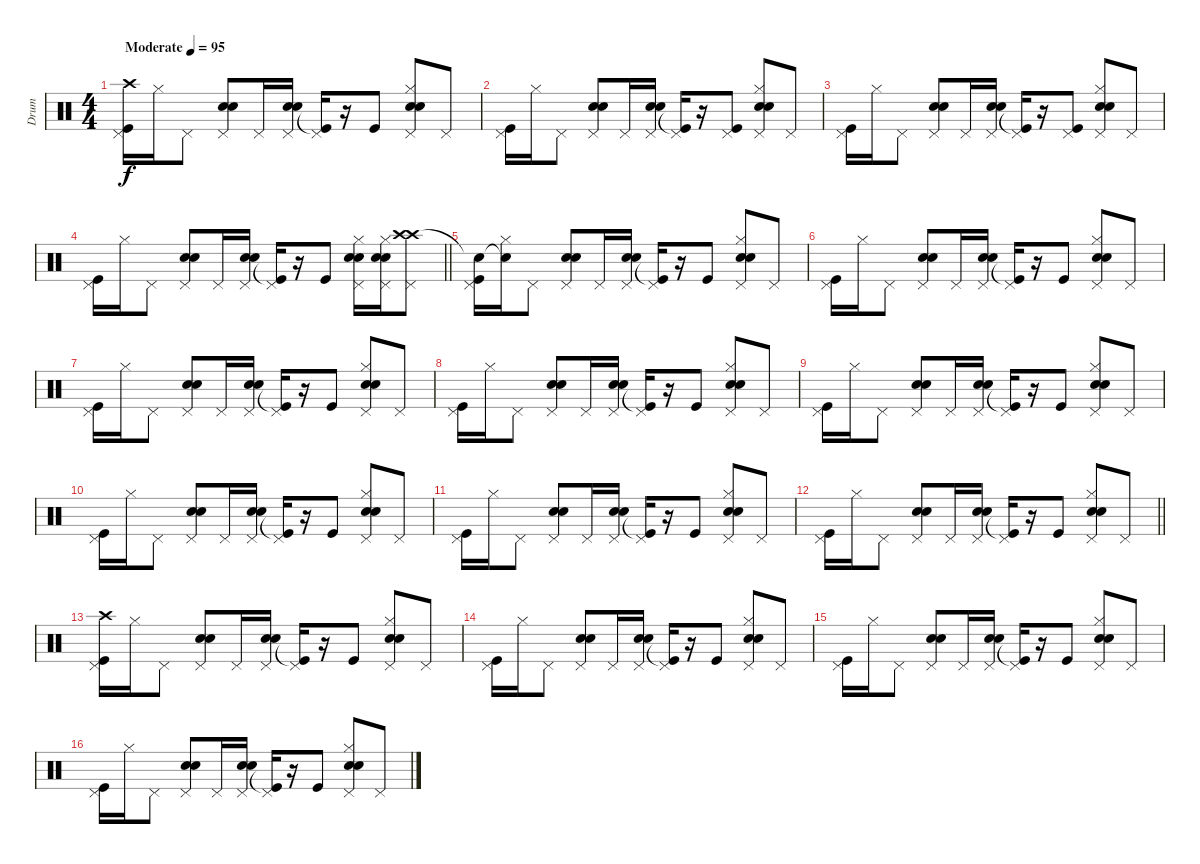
\track ("Drum" "Drum") {instrument percussion}
\staff {score}
\articulation defaults
\ts (4 4)
\tempo (95 "Moderate")
\clef neutral
\ks c
("Pedal Hi-Hat (hit)" "Crash high (hit)" "Kick (hit)").16{dy f} "Hi-Hat (closed)".16 "Pedal Hi-Hat (hit)".8 ("Pedal Hi-Hat (hit)" "Snare (hit) 2" "Snare (hit) 2").8 "Pedal Hi-Hat (hit)".16 ("Pedal Hi-Hat (hit)" "Snare (hit) 2" "Snare (hit) 2").16 ("Pedal Hi-Hat (hit)" "Kick (hit)"{t}).16 r.16 "Kick (hit)".8 ("Pedal Hi-Hat (hit)" "Hi-Hat (closed)" "Snare (hit) 2" "Snare (hit) 2").8 "Pedal Hi-Hat (hit)".8 |
("Pedal Hi-Hat (hit)" "Kick (hit)").16 "Hi-Hat (closed)".16 "Pedal Hi-Hat (hit)".8 ("Pedal Hi-Hat (hit)" "Snare (hit) 2" "Snare (hit) 2").8 "Pedal Hi-Hat (hit)".16 ("Pedal Hi-Hat (hit)" "Snare (hit) 2" "Snare (hit) 2").16 ("Pedal Hi-Hat (hit)" "Kick (hit)"{t}).16 r.16 ("Pedal Hi-Hat (hit)" "Kick (hit)").8 ("Pedal Hi-Hat (hit)" "Hi-Hat (closed)" "Snare (hit) 2" "Snare (hit) 2").8 "Pedal Hi-Hat (hit)".8 |
("Pedal Hi-Hat (hit)" "Kick (hit)").16 "Hi-Hat (closed)".16 "Pedal Hi-Hat (hit)".8 ("Pedal Hi-Hat (hit)" "Snare (hit) 2" "Snare (hit) 2").8 "Pedal Hi-Hat (hit)".16 ("Pedal Hi-Hat (hit)" "Snare (hit) 2" "Snare (hit) 2").16 ("Pedal Hi-Hat (hit)" "Kick (hit)"{t}).16 r.16 ("Pedal Hi-Hat (hit)" "Kick (hit)").8 ("Pedal Hi-Hat (hit)" "Hi-Hat (closed)" "Snare (hit) 2" "Snare (hit) 2").8 "Pedal Hi-Hat (hit)".8 |
\barLineRight lightlight
("Pedal Hi-Hat (hit)" "Kick (hit)").16 "Hi-Hat (closed)".16 "Pedal Hi-Hat (hit)".8 ("Pedal Hi-Hat (hit)" "Snare (hit) 2" "Snare (hit) 2").8 "Pedal Hi-Hat (hit)".16 ("Pedal Hi-Hat (hit)" "Snare (hit) 2" "Snare (hit) 2").16 ("Pedal Hi-Hat (hit)" "Kick (hit)"{t}).16 r.16 "Kick (hit)".8 ("Pedal Hi-Hat (hit)" "Hi-Hat (closed)" "Electric Snare (hit)" "Electric Snare (hit)").16 ("Pedal Hi-Hat (hit)" "Hi-Hat (closed)" "Electric Snare (hit)" "Electric Snare (hit)").16 ("Pedal Hi-Hat (hit)" "Crash high (hit)" "Crash high (hit)").8 |
("Pedal Hi-Hat (hit)" "Snare (hit)"{t} "Kick (hit)").16 ("Hi-Hat (closed)" "Snare (hit)"{t}).16 "Pedal Hi-Hat (hit)".8 ("Pedal Hi-Hat (hit)" "Snare (hit) 2" "Snare (hit) 2").8 "Pedal Hi-Hat (hit)".16 ("Pedal Hi-Hat (hit)" "Snare (hit) 2" "Snare (hit) 2").16 ("Pedal Hi-Hat (hit)" "Kick (hit)"{t}).16 r.16 "Kick (hit)".8 ("Pedal Hi-Hat (hit)" "Hi-Hat (closed)" "Snare (hit) 2" "Snare (hit) 2").8 "Pedal Hi-Hat (hit)".8 |
("Pedal Hi-Hat (hit)" "Kick (hit)").16 "Hi-Hat (closed)".16 "Pedal Hi-Hat (hit)".8 ("Pedal Hi-Hat (hit)" "Snare (hit) 2" "Snare (hit) 2").8 "Pedal Hi-Hat (hit)".16 ("Pedal Hi-Hat (hit)" "Snare (hit) 2" "Snare (hit) 2").16 ("Pedal Hi-Hat (hit)" "Kick (hit)"{t}).16 r.16 "Kick (hit)".8 ("Pedal Hi-Hat (hit)" "Hi-Hat (closed)" "Snare (hit) 2" "Snare (hit) 2").8 "Pedal Hi-Hat (hit)".8 |
("Pedal Hi-Hat (hit)" "Kick (hit)").16 "Hi-Hat (closed)".16 "Pedal Hi-Hat (hit)".8 ("Pedal Hi-Hat (hit)" "Snare (hit) 2" "Snare (hit) 2").8 "Pedal Hi-Hat (hit)".16 ("Pedal Hi-Hat (hit)" "Snare (hit) 2" "Snare (hit) 2").16 ("Pedal Hi-Hat (hit)" "Kick (hit)"{t}).16 r.16 "Kick (hit)".8 ("Pedal Hi-Hat (hit)" "Hi-Hat (closed)" "Snare (hit) 2" "Snare (hit) 2").8 "Pedal Hi-Hat (hit)".8 |
("Pedal Hi-Hat (hit)" "Kick (hit)").16 "Hi-Hat (closed)".16 "Pedal Hi-Hat (hit)".8 ("Pedal Hi-Hat (hit)" "Snare (hit) 2" "Snare (hit) 2").8 "Pedal Hi-Hat (hit)".16 ("Pedal Hi-Hat (hit)" "Snare (hit) 2" "Snare (hit) 2").16 ("Pedal Hi-Hat (hit)" "Kick (hit)"{t}).16 r.16 "Kick (hit)".8 ("Pedal Hi-Hat (hit)" "Hi-Hat (closed)" "Snare (hit) 2" "Snare (hit) 2").8 "Pedal Hi-Hat (hit)".8 |
("Pedal Hi-Hat (hit)" "Kick (hit)").16 "Hi-Hat (closed)".16 "Pedal Hi-Hat (hit)".8 ("Pedal Hi-Hat (hit)" "Snare (hit) 2" "Snare (hit) 2").8 "Pedal Hi-Hat (hit)".16 ("Pedal Hi-Hat (hit)" "Snare (hit) 2" "Snare (hit) 2").16 ("Pedal Hi-Hat (hit)" "Kick (hit)"{t}).16 r.16 "Kick (hit)".8 ("Pedal Hi-Hat (hit)" "Hi-Hat (closed)" "Snare (hit) 2" "Snare (hit) 2").8 "Pedal Hi-Hat (hit)".8 |
("Pedal Hi-Hat (hit)" "Kick (hit)").16 "Hi-Hat (closed)".16 "Pedal Hi-Hat (hit)".8 ("Pedal Hi-Hat (hit)" "Snare (hit) 2" "Snare (hit) 2").8 "Pedal Hi-Hat (hit)".16 ("Pedal Hi-Hat (hit)" "Snare (hit) 2" "Snare (hit) 2").16 ("Pedal Hi-Hat (hit)" "Kick (hit)"{t}).16 r.16 "Kick (hit)".8 ("Pedal Hi-Hat (hit)" "Hi-Hat (closed)" "Snare (hit) 2" "Snare (hit) 2").8 "Pedal Hi-Hat (hit)".8 |
("Pedal Hi-Hat (hit)" "Kick (hit)").16 "Hi-Hat (closed)".16 "Pedal Hi-Hat (hit)".8 ("Pedal Hi-Hat (hit)" "Snare (hit) 2" "Snare (hit) 2").8 "Pedal Hi-Hat (hit)".16 ("Pedal Hi-Hat (hit)" "Snare (hit) 2" "Snare (hit) 2").16 ("Pedal Hi-Hat (hit)" "Kick (hit)"{t}).16 r.16 "Kick (hit)".8 ("Pedal Hi-Hat (hit)" "Hi-Hat (closed)" "Snare (hit) 2" "Snare (hit) 2").8 "Pedal Hi-Hat (hit)".8 |
\barLineRight lightlight
("Pedal Hi-Hat (hit)" "Kick (hit)").16 "Hi-Hat (closed)".16 "Pedal Hi-Hat (hit)".8 ("Pedal Hi-Hat (hit)" "Snare (hit) 2" "Snare (hit) 2").8 "Pedal Hi-Hat (hit)".16 ("Pedal Hi-Hat (hit)" "Snare (hit) 2" "Snare (hit) 2").16 ("Pedal Hi-Hat (hit)" "Kick (hit)"{t}).16 r.16 "Kick (hit)".8 ("Pedal Hi-Hat (hit)" "Hi-Hat (closed)" "Snare (hit) 2" "Snare (hit) 2").8 "Pedal Hi-Hat (hit)".8 |
("Pedal Hi-Hat (hit)" "Crash high (hit)" "Kick (hit)").16 "Hi-Hat (closed)".16 "Pedal Hi-Hat (hit)".8 ("Pedal Hi-Hat (hit)" "Snare (hit) 2" "Snare (hit) 2").8 "Pedal Hi-Hat (hit)".16 ("Pedal Hi-Hat (hit)" "Snare (hit) 2" "Snare (hit) 2").16 ("Pedal Hi-Hat (hit)" "Kick (hit)"{t}).16 r.16 "Kick (hit)".8 ("Pedal Hi-Hat (hit)" "Hi-Hat (closed)" "Snare (hit) 2" "Snare (hit) 2").8 "Pedal Hi-Hat (hit)".8 |
("Pedal Hi-Hat (hit)" "Kick (hit)").16 "Hi-Hat (closed)".16 "Pedal Hi-Hat (hit)".8 ("Pedal Hi-Hat (hit)" "Snare (hit) 2" "Snare (hit) 2").8 "Pedal Hi-Hat (hit)".16 ("Pedal Hi-Hat (hit)" "Snare (hit) 2" "Snare (hit) 2").16 ("Pedal Hi-Hat (hit)" "Kick (hit)"{t}).16 r.16 "Kick (hit)".8 ("Pedal Hi-Hat (hit)" "Hi-Hat (closed)" "Snare (hit) 2" "Snare (hit) 2").8 "Pedal Hi-Hat (hit)".8 |
("Pedal Hi-Hat (hit)" "Kick (hit)").16 "Hi-Hat (closed)".16 "Pedal Hi-Hat (hit)".8 ("Pedal Hi-Hat (hit)" "Snare (hit) 2" "Snare (hit) 2").8 "Pedal Hi-Hat (hit)".16 ("Pedal Hi-Hat (hit)" "Snare (hit) 2" "Snare (hit) 2").16 ("Pedal Hi-Hat (hit)" "Kick (hit)"{t}).16 r.16 "Kick (hit)".8 ("Pedal Hi-Hat (hit)" "Hi-Hat (closed)" "Snare (hit) 2" "Snare (hit) 2").8 "Pedal Hi-Hat (hit)".8 |
("Pedal Hi-Hat (hit)" "Kick (hit)").16 "Hi-Hat (closed)".16 "Pedal Hi-Hat (hit)".8 ("Pedal Hi-Hat (hit)" "Snare (hit) 2" "Snare (hit) 2").8 "Pedal Hi-Hat (hit)".16 ("Pedal Hi-Hat (hit)" "Snare (hit) 2" "Snare (hit) 2").16 ("Pedal Hi-Hat (hit)" "Kick (hit)"{t}).16 r.16 "Kick (hit)".8 ("Pedal Hi-Hat (hit)" "Hi-Hat (closed)" "Snare (hit) 2" "Snare (hit) 2").8 "Pedal Hi-Hat (hit)".8
